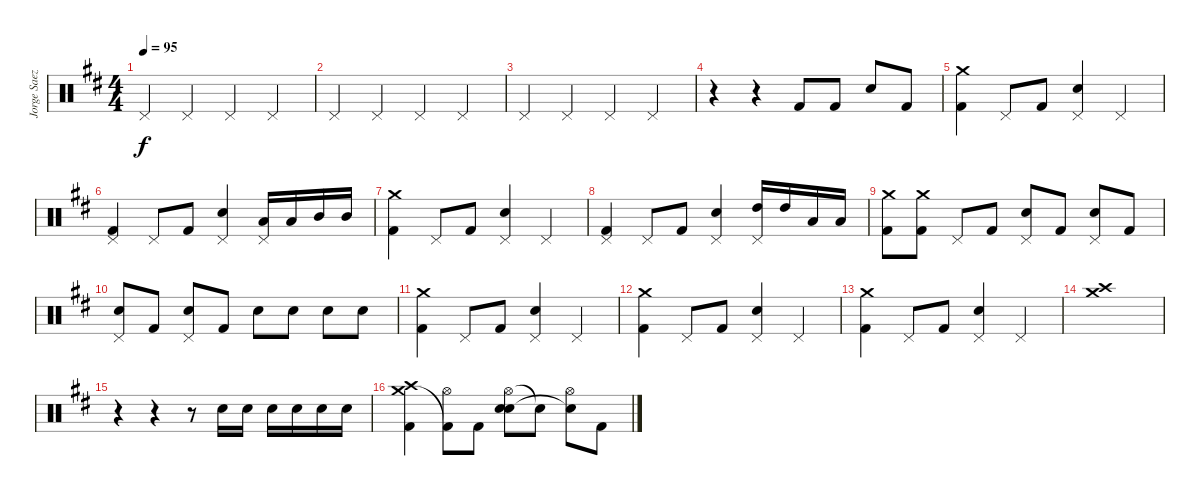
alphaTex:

\track ("Jorge Saez - Drums" "Jorge Saez") {instrument percussion}
\staff {score}
\articulation defaults
\ts (4 4)
\tempo 95
\clef neutral
\ks bminor "Pedal Hi-Hat (hit)".4{dy f} "Pedal Hi-Hat (hit)".4 "Pedal Hi-Hat (hit)".4 "Pedal Hi-Hat (hit)".4
|
"Pedal Hi-Hat (hit)".4 "Pedal Hi-Hat (hit)".4 "Pedal Hi-Hat (hit)".4 "Pedal Hi-Hat (hit)".4 |
"Pedal Hi-Hat (hit)".4 "Pedal Hi-Hat (hit)".4 "Pedal Hi-Hat (hit)".4 "Pedal Hi-Hat (hit)".4 |
r.4 r.4 "Kick (hit) 2".8 "Kick (hit) 2".8 "Snare (hit) 2".8 "Kick (hit) 2".8 |
("Crash medium (hit)" "Kick (hit) 2").4 "Pedal Hi-Hat (hit)".8 "Kick (hit) 2".8 ("Pedal Hi-Hat (hit)" "Snare (hit) 2").4 "Pedal Hi-Hat (hit)".4 |
("Pedal Hi-Hat (hit)" "Kick (hit) 2").4 "Pedal Hi-Hat (hit)".8 "Kick (hit) 2".8 ("Pedal Hi-Hat (hit)" "Snare (hit) 2").4 ("Pedal Hi-Hat (hit)" "Low Tom (hit)").16 "Low Tom (hit)".16 "Mid Tom (hit)".16 "Mid Tom (hit)".16 |
("Crash medium (hit)" "Kick (hit) 2").4 "Pedal Hi-Hat (hit)".8 "Kick (hit) 2".8 ("Pedal Hi-Hat (hit)" "Snare (hit) 2").4 "Pedal Hi-Hat (hit)".4 |
("Pedal Hi-Hat (hit)" "Kick (hit) 2").4 "Pedal Hi-Hat (hit)".8 "Kick (hit) 2".8 ("Pedal Hi-Hat (hit)" "Snare (hit) 2").4 ("Pedal Hi-Hat (hit)" "High Tom (hit)").16 "High Tom (hit)".16 "Low Tom (hit)".16 "Low Tom (hit)".16 |
("Crash medium (hit)" "Kick (hit) 2").8 ("Crash medium (hit)" "Kick (hit) 2").8 "Pedal Hi-Hat (hit)".8 "Kick (hit) 2".8 ("Pedal Hi-Hat (hit)" "Snare (hit) 2").8 "Kick (hit) 2".8 ("Pedal Hi-Hat (hit)" "Snare (hit) 2").8 "Kick (hit) 2".8 |
("Pedal Hi-Hat (hit)" "Snare (hit) 2").8 "Kick (hit) 2".8 ("Pedal Hi-Hat (hit)" "Snare (hit) 2").8 "Kick (hit) 2".8 "Snare (hit) 2".8 "Snare (hit) 2".8 "Snare (hit) 2".8 "Snare (hit) 2".8 |
("Crash medium (hit)" "Kick (hit) 2").4 "Pedal Hi-Hat (hit)".8 "Kick (hit) 2".8 ("Pedal Hi-Hat (hit)" "Snare (hit) 2").4 "Pedal Hi-Hat (hit)".4 |
("Crash medium (hit)" "Kick (hit) 2").4 "Pedal Hi-Hat (hit)".8 "Kick (hit) 2".8 ("Pedal Hi-Hat (hit)" "Snare (hit) 2").4 "Pedal Hi-Hat (hit)".4 |
("Crash medium (hit)" "Kick (hit) 2").4 "Pedal Hi-Hat (hit)".8 "Kick (hit) 2".8 ("Pedal Hi-Hat (hit)" "Snare (hit) 2").4 "Pedal Hi-Hat (hit)".4 |
("Crash medium (hit)" "Crash high (hit)").1{bd 480} |
r.4 r.4 r.8 "Snare (hit) 2".16 "Snare (hit) 2".16 "Snare (hit) 2".16 "Snare (hit) 2".16 "Snare (hit) 2".16 "Snare (hit) 2".16 |
("Crash high (hit)" "Crash medium (hit)" "Kick (hit) 2").4 ("Hi-Hat (open)" "Kick (hit) 2"{t}).8 "Kick (hit) 2".8 ("Hi-Hat (open)" "Electric Snare (hit)" "Snare (hit) 2").8 "Snare (hit)"{t}.8 ("Hi-Hat (open)" "Snare (hit)"{t}).8 "Kick (hit) 2".8
